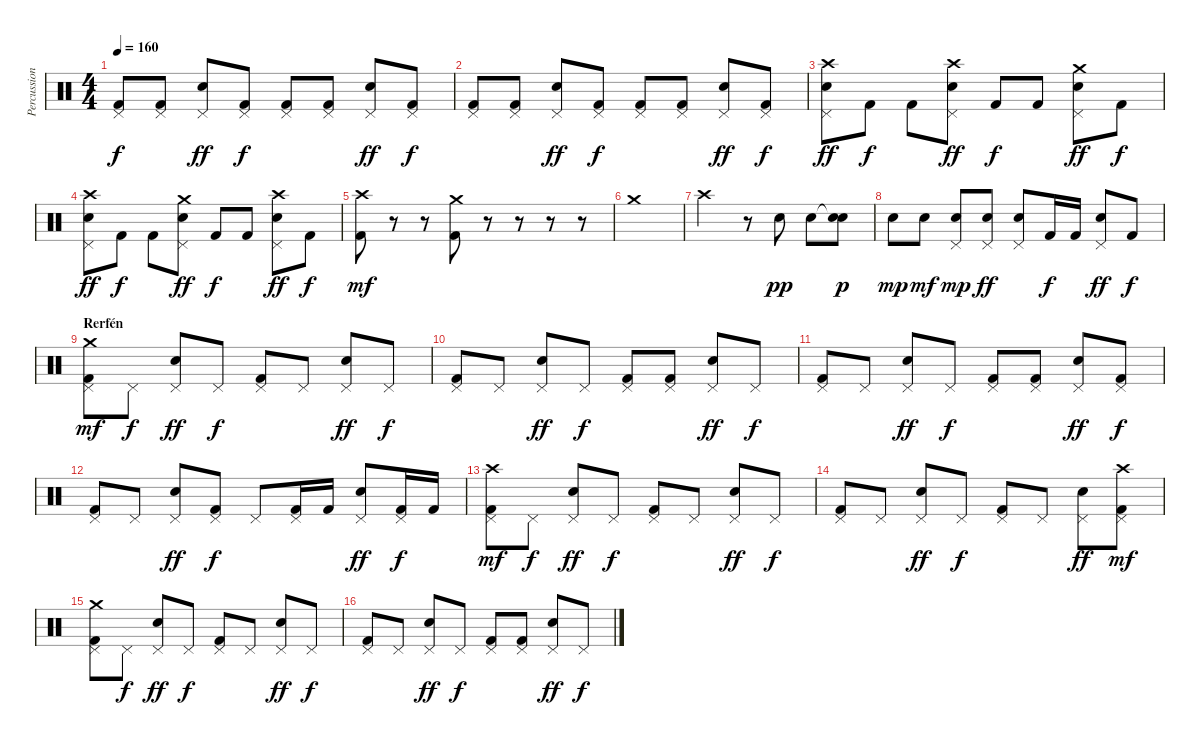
\track ("Percussion" "Percussion") {instrument percussion}
\staff {score}
\articulation defaults
\ts (4 4)
\tempo 160
\clef neutral
\ks c
("Pedal Hi-Hat (hit)" "Kick (hit) 2").8{dy f} ("Pedal Hi-Hat (hit)" "Kick (hit) 2").8 ("Pedal Hi-Hat (hit)" "Electric Snare (hit)").8{dy ff} ("Pedal Hi-Hat (hit)" "Kick (hit) 2").8{dy f} ("Pedal Hi-Hat (hit)" "Kick (hit) 2").8 ("Pedal Hi-Hat (hit)" "Kick (hit) 2").8 ("Pedal Hi-Hat (hit)" "Electric Snare (hit)").8{dy ff} ("Pedal Hi-Hat (hit)" "Kick (hit) 2").8{dy f} |
("Pedal Hi-Hat (hit)" "Kick (hit) 2").8 ("Pedal Hi-Hat (hit)" "Kick (hit) 2").8 ("Pedal Hi-Hat (hit)" "Electric Snare (hit)").8{dy ff} ("Pedal Hi-Hat (hit)" "Kick (hit) 2").8{dy f} ("Pedal Hi-Hat (hit)" "Kick (hit) 2").8 ("Pedal Hi-Hat (hit)" "Kick (hit) 2").8 ("Pedal Hi-Hat (hit)" "Electric Snare (hit)").8{dy ff} ("Pedal Hi-Hat (hit)" "Kick (hit) 2").8{dy f} |
("Pedal Hi-Hat (hit)" "Crash high (hit)" "Electric Snare (hit)").8{dy ff} "Kick (hit) 2".8{dy f} "Kick (hit) 2".8 ("Pedal Hi-Hat (hit)" "Crash high (hit)" "Electric Snare (hit)").8{dy ff} "Kick (hit) 2".8{dy f} "Kick (hit) 2".8 ("Pedal Hi-Hat (hit)" "Crash medium (hit)" "Electric Snare (hit)").8{dy ff} "Kick (hit) 2".8{dy f} |
("Pedal Hi-Hat (hit)" "Crash high (hit)" "Electric Snare (hit)").8{dy ff} "Kick (hit) 2".8{dy f} "Kick (hit) 2".8 ("Pedal Hi-Hat (hit)" "Crash medium (hit)" "Electric Snare (hit)").8{dy ff} "Kick (hit) 2".8{dy f} "Kick (hit) 2".8 ("Pedal Hi-Hat (hit)" "Crash high (hit)" "Electric Snare (hit)").8{dy ff} "Kick (hit) 2".8{dy f} |
("Crash high (hit)" "Kick (hit) 2").8{dy mf} r.8 r.8 ("Crash medium (hit)" "Kick (hit) 2").8 r.8 r.8 r.8 r.8 |
"Crash medium (hit)".1 |
"Crash high (hit)".2 r.8 "Electric Snare (hit)".8{dy pp} "Electric Snare (hit)".8 ("Snare (hit)"{t} "Electric Snare (hit)").8{dy p} |
"Electric Snare (hit)".8{dy mp} "Electric Snare (hit)".8{dy mf} ("Pedal Hi-Hat (hit)" "Electric Snare (hit)").8{dy mp} ("Pedal Hi-Hat (hit)" "Electric Snare (hit)").8{dy ff} ("Pedal Hi-Hat (hit)" "Electric Snare (hit)").8 "Kick (hit) 2".16{dy f} "Kick (hit) 2".16 ("Pedal Hi-Hat (hit)" "Electric Snare (hit)").8{dy ff} "Kick (hit) 2".8{dy f} |
\section ("" "Rerfén")
("Pedal Hi-Hat (hit)" "Crash medium (hit)" "Kick (hit) 2").8{dy mf} "Pedal Hi-Hat (hit)".8{dy f} ("Pedal Hi-Hat (hit)" "Electric Snare (hit)").8{dy ff} "Pedal Hi-Hat (hit)".8{dy f} ("Pedal Hi-Hat (hit)" "Kick (hit) 2").8 "Pedal Hi-Hat (hit)".8 ("Pedal Hi-Hat (hit)" "Electric Snare (hit)").8{dy ff} "Pedal Hi-Hat (hit)".8{dy f} |
("Pedal Hi-Hat (hit)" "Kick (hit) 2").8 "Pedal Hi-Hat (hit)".8 ("Pedal Hi-Hat (hit)" "Electric Snare (hit)").8{dy ff} "Pedal Hi-Hat (hit)".8{dy f} ("Pedal Hi-Hat (hit)" "Kick (hit) 2").8 ("Pedal Hi-Hat (hit)" "Kick (hit) 2").8 ("Pedal Hi-Hat (hit)" "Electric Snare (hit)").8{dy ff} "Pedal Hi-Hat (hit)".8{dy f} |
("Pedal Hi-Hat (hit)" "Kick (hit) 2").8 "Pedal Hi-Hat (hit)".8 ("Pedal Hi-Hat (hit)" "Electric Snare (hit)").8{dy ff} "Pedal Hi-Hat (hit)".8{dy f} ("Pedal Hi-Hat (hit)" "Kick (hit) 2").8 ("Pedal Hi-Hat (hit)" "Kick (hit) 2").8 ("Pedal Hi-Hat (hit)" "Electric Snare (hit)").8{dy ff} ("Pedal Hi-Hat (hit)" "Kick (hit) 2").8{dy f} |
("Pedal Hi-Hat (hit)" "Kick (hit) 2").8 "Pedal Hi-Hat (hit)".8 ("Pedal Hi-Hat (hit)" "Electric Snare (hit)").8{dy ff} ("Pedal Hi-Hat (hit)" "Kick (hit) 2").8{dy f} "Pedal Hi-Hat (hit)".8 ("Pedal Hi-Hat (hit)" "Kick (hit) 2").16 "Kick (hit) 2".16 ("Pedal Hi-Hat (hit)" "Electric Snare (hit)").8{dy ff} ("Pedal Hi-Hat (hit)" "Kick (hit) 2").16{dy f} "Kick (hit) 2".16 |
("Pedal Hi-Hat (hit)" "Crash high (hit)" "Kick (hit) 2").8{dy mf} "Pedal Hi-Hat (hit)".8{dy f} ("Pedal Hi-Hat (hit)" "Electric Snare (hit)").8{dy ff} "Pedal Hi-Hat (hit)".8{dy f} ("Pedal Hi-Hat (hit)" "Kick (hit) 2").8 "Pedal Hi-Hat (hit)".8 ("Pedal Hi-Hat (hit)" "Electric Snare (hit)").8{dy ff} "Pedal Hi-Hat (hit)".8{dy f} |
("Pedal Hi-Hat (hit)" "Kick (hit) 2").8 "Pedal Hi-Hat (hit)".8 ("Pedal Hi-Hat (hit)" "Electric Snare (hit)").8{dy ff} "Pedal Hi-Hat (hit)".8{dy f} ("Pedal Hi-Hat (hit)" "Kick (hit) 2").8 "Pedal Hi-Hat (hit)".8 ("Pedal Hi-Hat (hit)" "Electric Snare (hit)").8{dy ff} ("Pedal Hi-Hat (hit)" "Crash high (hit)" "Kick (hit) 2").8{dy mf} |
("Pedal Hi-Hat (hit)" "Crash medium (hit)" "Kick (hit) 2").8 "Pedal Hi-Hat (hit)".8{dy f} ("Pedal Hi-Hat (hit)" "Electric Snare (hit)").8{dy ff} "Pedal Hi-Hat (hit)".8{dy f} ("Pedal Hi-Hat (hit)" "Kick (hit) 2").8 "Pedal Hi-Hat (hit)".8 ("Pedal Hi-Hat (hit)" "Electric Snare (hit)").8{dy ff} "Pedal Hi-Hat (hit)".8{dy f} |
("Pedal Hi-Hat (hit)" "Kick (hit) 2").8 "Pedal Hi-Hat (hit)".8 ("Pedal Hi-Hat (hit)" "Electric Snare (hit)").8{dy ff} "Pedal Hi-Hat (hit)".8{dy f} ("Pedal Hi-Hat (hit)" "Kick (hit) 2").8 ("Pedal Hi-Hat (hit)" "Kick (hit) 2").8 ("Pedal Hi-Hat (hit)" "Electric Snare (hit)").8{dy ff} "Pedal Hi-Hat (hit)".8{dy f}
